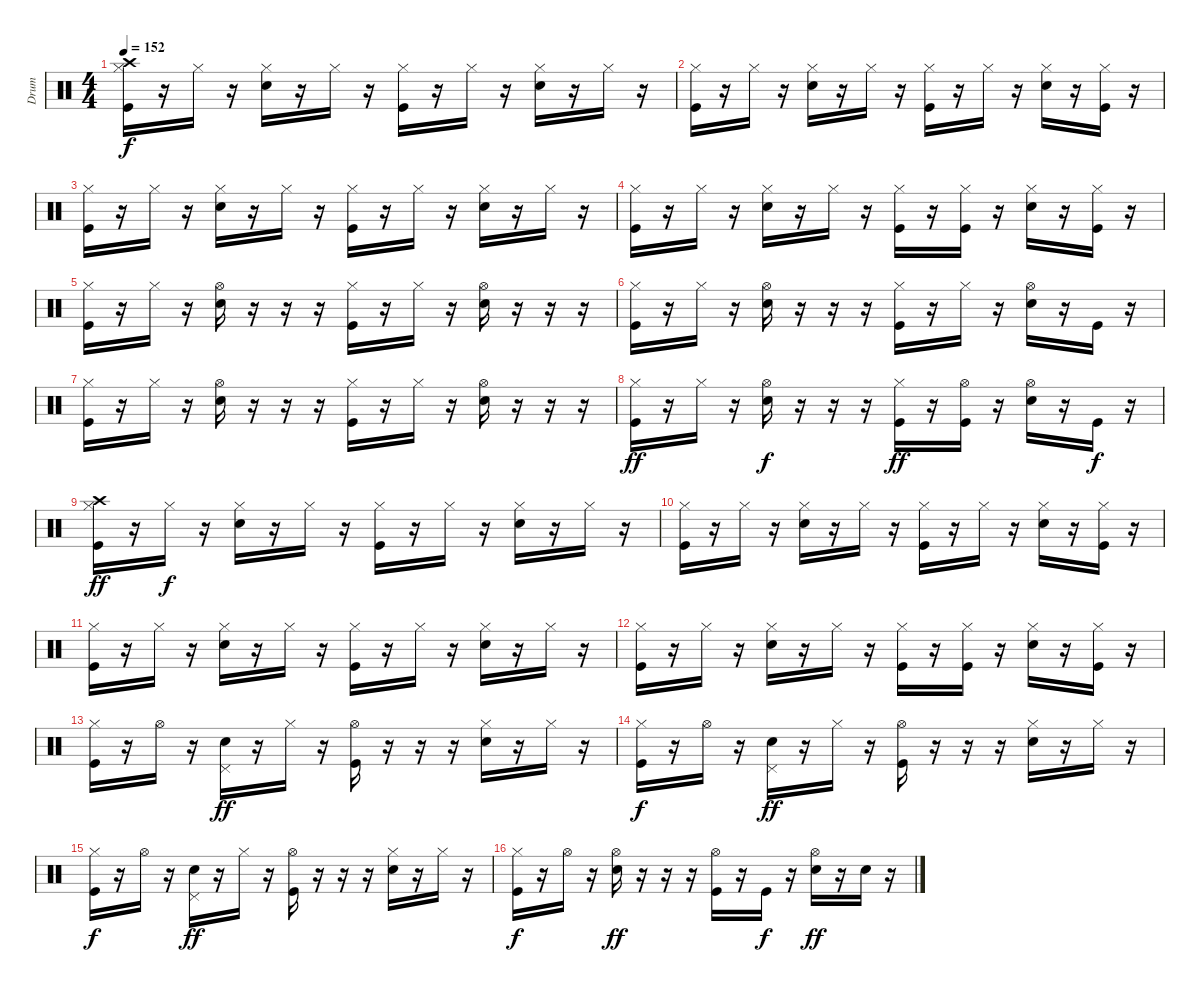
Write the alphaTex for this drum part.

\track ("Drum" "Drum") {instrument percussion}
\staff {score}
\articulation defaults
\ts (4 4)
\tempo 152
\clef neutral
\ks c
("Crash high (hit)" "Hi-Hat (closed)" "Kick (hit)").16{dy f} r.16 "Hi-Hat (closed)".16 r.16 ("Hi-Hat (closed)" "Electric Snare (hit)").16 r.16 "Hi-Hat (closed)".16 r.16 ("Hi-Hat (closed)" "Kick (hit)").16 r.16 "Hi-Hat (closed)".16 r.16 ("Hi-Hat (closed)" "Electric Snare (hit)").16 r.16 "Hi-Hat (closed)".16 r.16 |
("Hi-Hat (closed)" "Kick (hit)").16 r.16 "Hi-Hat (closed)".16 r.16 ("Hi-Hat (closed)" "Electric Snare (hit)").16 r.16 "Hi-Hat (closed)".16 r.16 ("Hi-Hat (closed)" "Kick (hit)").16 r.16 "Hi-Hat (closed)".16 r.16 ("Hi-Hat (closed)" "Electric Snare (hit)").16 r.16 ("Hi-Hat (closed)" "Kick (hit)").16 r.16 |
("Hi-Hat (closed)" "Kick (hit)").16 r.16 "Hi-Hat (closed)".16 r.16 ("Hi-Hat (closed)" "Electric Snare (hit)").16 r.16 "Hi-Hat (closed)".16 r.16 ("Hi-Hat (closed)" "Kick (hit)").16 r.16 "Hi-Hat (closed)".16 r.16 ("Hi-Hat (closed)" "Electric Snare (hit)").16 r.16 "Hi-Hat (closed)".16 r.16 |
("Hi-Hat (closed)" "Kick (hit)").16 r.16 "Hi-Hat (closed)".16 r.16 ("Hi-Hat (closed)" "Electric Snare (hit)").16 r.16 "Hi-Hat (closed)".16 r.16 ("Hi-Hat (closed)" "Kick (hit)").16 r.16 ("Hi-Hat (closed)" "Kick (hit)").16 r.16 ("Hi-Hat (closed)" "Electric Snare (hit)").16 r.16 ("Hi-Hat (closed)" "Kick (hit)").16 r.16 |
("Hi-Hat (closed)" "Kick (hit)").16 r.16 "Hi-Hat (closed)".16 r.16 ("Hi-Hat (open)" "Electric Snare (hit)").16 r.16 r.16 r.16 ("Hi-Hat (closed)" "Kick (hit)").16 r.16 "Hi-Hat (closed)".16 r.16 ("Hi-Hat (open)" "Electric Snare (hit)").16 r.16 r.16 r.16 |
("Hi-Hat (closed)" "Kick (hit)").16 r.16 "Hi-Hat (closed)".16 r.16 ("Hi-Hat (open)" "Electric Snare (hit)").16 r.16 r.16 r.16 ("Hi-Hat (closed)" "Kick (hit)").16 r.16 "Hi-Hat (closed)".16 r.16 ("Hi-Hat (open)" "Electric Snare (hit)").16 r.16 "Kick (hit)".16 r.16 |
("Hi-Hat (closed)" "Kick (hit)").16 r.16 "Hi-Hat (closed)".16 r.16 ("Hi-Hat (open)" "Electric Snare (hit)").16 r.16 r.16 r.16 ("Hi-Hat (closed)" "Kick (hit)").16 r.16 "Hi-Hat (closed)".16 r.16 ("Hi-Hat (open)" "Electric Snare (hit)").16 r.16 r.16 r.16 |
("Hi-Hat (closed)" "Kick (hit)").16{dy ff} r.16 "Hi-Hat (closed)".16 r.16 ("Hi-Hat (open)" "Electric Snare (hit)").16{dy f} r.16 r.16 r.16 ("Hi-Hat (closed)" "Kick (hit)").16{dy ff} r.16 ("Hi-Hat (open)" "Kick (hit)").16 r.16 ("Hi-Hat (open)" "Electric Snare (hit)").16 r.16 "Kick (hit)".16{dy f} r.16 |
("Crash high (hit)" "Hi-Hat (closed)" "Kick (hit)").16{dy ff} r.16 "Hi-Hat (closed)".16{dy f} r.16 ("Hi-Hat (closed)" "Electric Snare (hit)").16 r.16 "Hi-Hat (closed)".16 r.16 ("Hi-Hat (closed)" "Kick (hit)").16 r.16 "Hi-Hat (closed)".16 r.16 ("Hi-Hat (closed)" "Electric Snare (hit)").16 r.16 "Hi-Hat (closed)".16 r.16 |
("Hi-Hat (closed)" "Kick (hit)").16 r.16 "Hi-Hat (closed)".16 r.16 ("Hi-Hat (closed)" "Electric Snare (hit)").16 r.16 "Hi-Hat (closed)".16 r.16 ("Hi-Hat (closed)" "Kick (hit)").16 r.16 "Hi-Hat (closed)".16 r.16 ("Hi-Hat (closed)" "Electric Snare (hit)").16 r.16 ("Hi-Hat (closed)" "Kick (hit)").16 r.16 |
("Hi-Hat (closed)" "Kick (hit)").16 r.16 "Hi-Hat (closed)".16 r.16 ("Hi-Hat (closed)" "Electric Snare (hit)").16 r.16 "Hi-Hat (closed)".16 r.16 ("Hi-Hat (closed)" "Kick (hit)").16 r.16 "Hi-Hat (closed)".16 r.16 ("Hi-Hat (closed)" "Electric Snare (hit)").16 r.16 "Hi-Hat (closed)".16 r.16 |
("Hi-Hat (closed)" "Kick (hit)").16 r.16 "Hi-Hat (closed)".16 r.16 ("Hi-Hat (closed)" "Electric Snare (hit)").16 r.16 "Hi-Hat (closed)".16 r.16 ("Hi-Hat (closed)" "Kick (hit)").16 r.16 ("Hi-Hat (closed)" "Kick (hit)").16 r.16 ("Hi-Hat (closed)" "Electric Snare (hit)").16 r.16 ("Hi-Hat (closed)" "Kick (hit)").16 r.16 |
("Hi-Hat (closed)" "Kick (hit)").16 r.16 "Hi-Hat (open)".16 r.16 ("Pedal Hi-Hat (hit)" "Electric Snare (hit)").16{dy ff} r.16 "Hi-Hat (closed)".16 r.16 ("Hi-Hat (open)" "Kick (hit)").16 r.16 r.16 r.16 ("Hi-Hat (closed)" "Electric Snare (hit)").16 r.16 "Hi-Hat (closed)".16 r.16 |
("Hi-Hat (closed)" "Kick (hit)").16{dy f} r.16 "Hi-Hat (open)".16 r.16 ("Pedal Hi-Hat (hit)" "Electric Snare (hit)").16{dy ff} r.16 "Hi-Hat (closed)".16 r.16 ("Hi-Hat (open)" "Kick (hit)").16 r.16 r.16 r.16 ("Hi-Hat (closed)" "Electric Snare (hit)").16 r.16 "Hi-Hat (closed)".16 r.16 |
("Hi-Hat (closed)" "Kick (hit)").16{dy f} r.16 "Hi-Hat (open)".16 r.16 ("Pedal Hi-Hat (hit)" "Electric Snare (hit)").16{dy ff} r.16 "Hi-Hat (closed)".16 r.16 ("Hi-Hat (open)" "Kick (hit)").16 r.16 r.16 r.16 ("Hi-Hat (closed)" "Electric Snare (hit)").16 r.16 "Hi-Hat (closed)".16 r.16 |
("Hi-Hat (closed)" "Kick (hit)").16{dy f} r.16 "Hi-Hat (open)".16 r.16 ("Hi-Hat (open)" "Electric Snare (hit)").16{dy ff} r.16 r.16 r.16 ("Hi-Hat (open)" "Kick (hit)").16 r.16 "Kick (hit)".16{dy f} r.16 ("Hi-Hat (open)" "Electric Snare (hit)").16{dy ff} r.16 "Electric Snare (hit)".16 r.16
